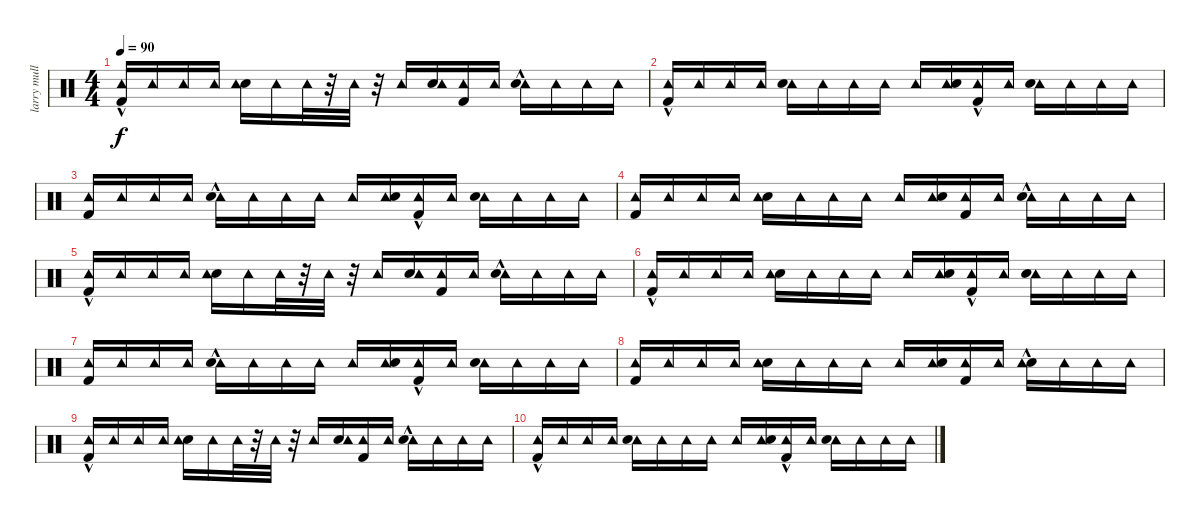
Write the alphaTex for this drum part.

\track ("larry mullen jr" "larry mull") {instrument percussion}
\staff {score}
\articulation defaults
\ts (4 4)
\tempo 90
\clef neutral
\ks c
("Kick (hit) 2"{hac} "Tambourine (hit)").16{dy f} "Tambourine (hit)".16 "Tambourine (hit)".16 "Tambourine (hit)".16 ("Electric Snare (hit)" "Tambourine (hit)").16 "Tambourine (hit)".16 "Tambourine (hit)".32 r.32 "Tambourine (hit)".32 r.32 "Tambourine (hit)".16 ("Electric Snare (hit)" "Tambourine (hit)").16 ("Kick (hit) 2" "Tambourine (hit)").16 "Tambourine (hit)".16 ("Tambourine (hit)" "Electric Snare (hit)"{hac}).16 "Tambourine (hit)".16 "Tambourine (hit)".16 "Tambourine (hit)".16 |
("Tambourine (hit)" "Kick (hit) 2"{hac}).16 "Tambourine (hit)".16 "Tambourine (hit)".16 "Tambourine (hit)".16 ("Tambourine (hit)" "Electric Snare (hit)").16 "Tambourine (hit)".16 "Tambourine (hit)".16 "Tambourine (hit)".16 "Tambourine (hit)".16 ("Tambourine (hit)" "Electric Snare (hit)").16 ("Kick (hit) 2"{hac} "Tambourine (hit)").16 "Tambourine (hit)".16 ("Tambourine (hit)" "Electric Snare (hit)").16 "Tambourine (hit)".16 "Tambourine (hit)".16 "Tambourine (hit)".16 |
("Kick (hit) 2" "Tambourine (hit)").16 "Tambourine (hit)".16 "Tambourine (hit)".16 "Tambourine (hit)".16 ("Tambourine (hit)" "Electric Snare (hit)"{hac}).16 "Tambourine (hit)".16 "Tambourine (hit)".16 "Tambourine (hit)".16 "Tambourine (hit)".16 ("Tambourine (hit)" "Electric Snare (hit)").16 ("Kick (hit) 2"{hac} "Tambourine (hit)").16 "Tambourine (hit)".16 ("Tambourine (hit)" "Electric Snare (hit)").16 "Tambourine (hit)".16 "Tambourine (hit)".16 "Tambourine (hit)".16 |
("Kick (hit) 2" "Tambourine (hit)").16 "Tambourine (hit)".16 "Tambourine (hit)".16 "Tambourine (hit)".16 ("Electric Snare (hit)" "Tambourine (hit)").16 "Tambourine (hit)".16 "Tambourine (hit)".16 "Tambourine (hit)".16 "Tambourine (hit)".16 ("Tambourine (hit)" "Electric Snare (hit)").16 ("Tambourine (hit)" "Kick (hit) 2").16 "Tambourine (hit)".16 ("Tambourine (hit)" "Electric Snare (hit)"{hac}).16 "Tambourine (hit)".16 "Tambourine (hit)".16 "Tambourine (hit)".16 |
("Kick (hit) 2"{hac} "Tambourine (hit)").16 "Tambourine (hit)".16 "Tambourine (hit)".16 "Tambourine (hit)".16 ("Electric Snare (hit)" "Tambourine (hit)").16 "Tambourine (hit)".16 "Tambourine (hit)".32 r.32 "Tambourine (hit)".32 r.32 "Tambourine (hit)".16 ("Electric Snare (hit)" "Tambourine (hit)").16 ("Kick (hit) 2" "Tambourine (hit)").16 "Tambourine (hit)".16 ("Tambourine (hit)" "Electric Snare (hit)"{hac}).16 "Tambourine (hit)".16 "Tambourine (hit)".16 "Tambourine (hit)".16 |
("Kick (hit) 2"{hac} "Tambourine (hit)").16 "Tambourine (hit)".16 "Tambourine (hit)".16 "Tambourine (hit)".16 ("Electric Snare (hit)" "Tambourine (hit)").16 "Tambourine (hit)".16 "Tambourine (hit)".16 "Tambourine (hit)".16 "Tambourine (hit)".16 ("Tambourine (hit)" "Electric Snare (hit)").16 ("Kick (hit) 2"{hac} "Tambourine (hit)").16 "Tambourine (hit)".16 ("Tambourine (hit)" "Electric Snare (hit)").16 "Tambourine (hit)".16 "Tambourine (hit)".16 "Tambourine (hit)".16 |
("Kick (hit) 2" "Tambourine (hit)").16 "Tambourine (hit)".16 "Tambourine (hit)".16 "Tambourine (hit)".16 ("Tambourine (hit)" "Electric Snare (hit)"{hac}).16 "Tambourine (hit)".16 "Tambourine (hit)".16 "Tambourine (hit)".16 "Tambourine (hit)".16 ("Tambourine (hit)" "Electric Snare (hit)").16 ("Kick (hit) 2"{hac} "Tambourine (hit)").16 "Tambourine (hit)".16 ("Tambourine (hit)" "Electric Snare (hit)").16 "Tambourine (hit)".16 "Tambourine (hit)".16 "Tambourine (hit)".16 |
("Kick (hit) 2" "Tambourine (hit)").16 "Tambourine (hit)".16 "Tambourine (hit)".16 "Tambourine (hit)".16 ("Electric Snare (hit)" "Tambourine (hit)").16 "Tambourine (hit)".16 "Tambourine (hit)".16 "Tambourine (hit)".16 "Tambourine (hit)".16 ("Tambourine (hit)" "Electric Snare (hit)").16 ("Tambourine (hit)" "Kick (hit) 2").16 "Tambourine (hit)".16 ("Electric Snare (hit)"{hac} "Tambourine (hit)").16 "Tambourine (hit)".16 "Tambourine (hit)".16 "Tambourine (hit)".16 |
("Kick (hit) 2"{hac} "Tambourine (hit)").16 "Tambourine (hit)".16 "Tambourine (hit)".16 "Tambourine (hit)".16 ("Electric Snare (hit)" "Tambourine (hit)").16 "Tambourine (hit)".16 "Tambourine (hit)".32 r.32 "Tambourine (hit)".32 r.32 "Tambourine (hit)".16 ("Electric Snare (hit)" "Tambourine (hit)").16 ("Kick (hit) 2" "Tambourine (hit)").16 "Tambourine (hit)".16 ("Tambourine (hit)" "Electric Snare (hit)"{hac}).16 "Tambourine (hit)".16 "Tambourine (hit)".16 "Tambourine (hit)".16 |
("Kick (hit) 2"{hac} "Tambourine (hit)").16 "Tambourine (hit)".16 "Tambourine (hit)".16 "Tambourine (hit)".16 ("Tambourine (hit)" "Electric Snare (hit)").16 "Tambourine (hit)".16 "Tambourine (hit)".16 "Tambourine (hit)".16 "Tambourine (hit)".16 ("Tambourine (hit)" "Electric Snare (hit)").16 ("Kick (hit) 2"{hac} "Tambourine (hit)").16 "Tambourine (hit)".16 ("Tambourine (hit)" "Electric Snare (hit)").16 "Tambourine (hit)".16 "Tambourine (hit)".16 "Tambourine (hit)".16
